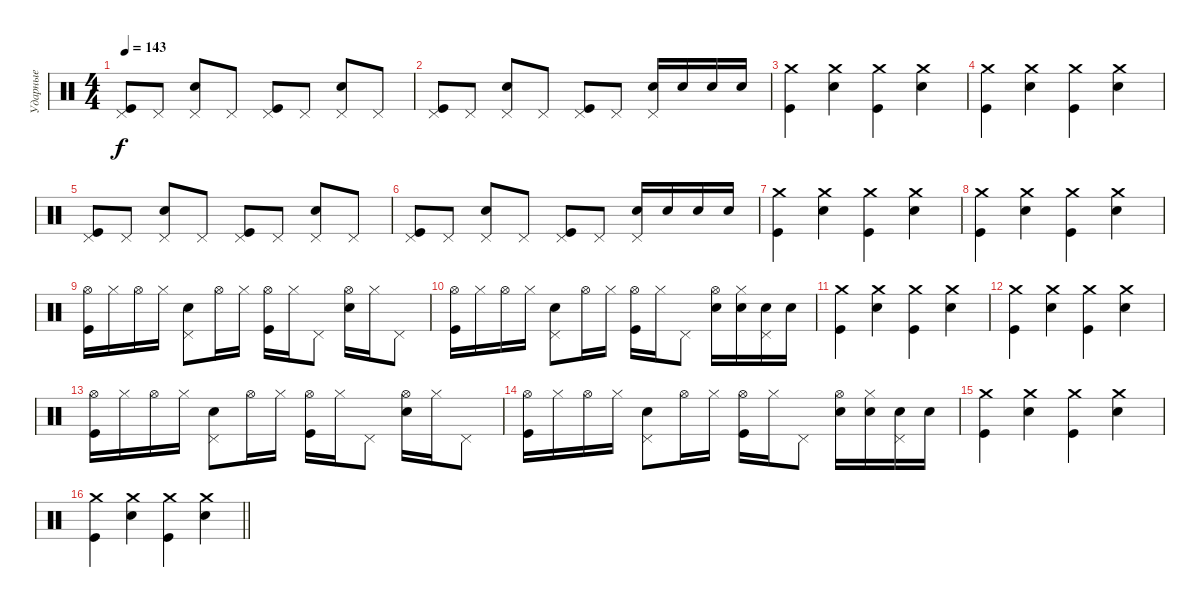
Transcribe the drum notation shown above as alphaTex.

\track ("Ударные" "Ударные") {instrument percussion}
\staff {score}
\articulation defaults
\ts (4 4)
\tempo 143
\clef neutral
\ks c
("Pedal Hi-Hat (hit)" "Kick (hit)").8{dy f} "Pedal Hi-Hat (hit)".8 ("Pedal Hi-Hat (hit)" "Electric Snare (hit)").8 "Pedal Hi-Hat (hit)".8 ("Pedal Hi-Hat (hit)" "Kick (hit)").8 "Pedal Hi-Hat (hit)".8 ("Pedal Hi-Hat (hit)" "Electric Snare (hit)").8 "Pedal Hi-Hat (hit)".8 |
("Pedal Hi-Hat (hit)" "Kick (hit)").8 "Pedal Hi-Hat (hit)".8 ("Pedal Hi-Hat (hit)" "Electric Snare (hit)").8 "Pedal Hi-Hat (hit)".8 ("Pedal Hi-Hat (hit)" "Kick (hit)").8 "Pedal Hi-Hat (hit)".8 ("Pedal Hi-Hat (hit)" "Snare (hit) 2").16 "Snare (hit) 2".16 "Snare (hit) 2".16 "Snare (hit) 2".16 |
("Crash medium (hit)" "Kick (hit)").4 ("Crash medium (hit)" "Snare (hit) 2").4 ("Crash medium (hit)" "Kick (hit)").4 ("Crash medium (hit)" "Snare (hit) 2").4 |
("Crash medium (hit)" "Kick (hit)").4 ("Crash medium (hit)" "Snare (hit) 2").4 ("Crash medium (hit)" "Kick (hit)").4 ("Crash medium (hit)" "Snare (hit) 2").4 |
("Pedal Hi-Hat (hit)" "Kick (hit)").8 "Pedal Hi-Hat (hit)".8 ("Pedal Hi-Hat (hit)" "Electric Snare (hit)").8 "Pedal Hi-Hat (hit)".8 ("Pedal Hi-Hat (hit)" "Kick (hit)").8 "Pedal Hi-Hat (hit)".8 ("Pedal Hi-Hat (hit)" "Electric Snare (hit)").8 "Pedal Hi-Hat (hit)".8 |
("Pedal Hi-Hat (hit)" "Kick (hit)").8 "Pedal Hi-Hat (hit)".8 ("Pedal Hi-Hat (hit)" "Electric Snare (hit)").8 "Pedal Hi-Hat (hit)".8 ("Pedal Hi-Hat (hit)" "Kick (hit)").8 "Pedal Hi-Hat (hit)".8 ("Pedal Hi-Hat (hit)" "Snare (hit) 2").16 "Snare (hit) 2".16 "Snare (hit) 2".16 "Snare (hit) 2".16 |
("Crash medium (hit)" "Kick (hit)").4 ("Crash medium (hit)" "Snare (hit) 2").4 ("Crash medium (hit)" "Kick (hit)").4 ("Crash medium (hit)" "Snare (hit) 2").4 |
("Crash medium (hit)" "Kick (hit)").4 ("Crash medium (hit)" "Snare (hit) 2").4 ("Crash medium (hit)" "Kick (hit)").4 ("Crash medium (hit)" "Snare (hit) 2").4 |
("Hi-Hat (open)" "Kick (hit)").16 "Hi-Hat (closed)".16 "Hi-Hat (open)".16 "Hi-Hat (closed)".16 ("Pedal Hi-Hat (hit)" "Electric Snare (hit)").8 "Hi-Hat (open)".16 "Hi-Hat (closed)".16 ("Hi-Hat (open)" "Kick (hit)").16 "Hi-Hat (closed)".16 "Pedal Hi-Hat (hit)".8 ("Hi-Hat (open)" "Electric Snare (hit)").16 "Hi-Hat (closed)".16 "Pedal Hi-Hat (hit)".8 |
("Hi-Hat (open)" "Kick (hit)").16 "Hi-Hat (closed)".16 "Hi-Hat (open)".16 "Hi-Hat (closed)".16 ("Pedal Hi-Hat (hit)" "Electric Snare (hit)").8 "Hi-Hat (open)".16 "Hi-Hat (closed)".16 ("Hi-Hat (open)" "Kick (hit)").16 "Hi-Hat (closed)".16 "Pedal Hi-Hat (hit)".8 ("Hi-Hat (open)" "Snare (hit) 2").16 ("Hi-Hat (closed)" "Snare (hit) 2").16 ("Pedal Hi-Hat (hit)" "Snare (hit) 2").16 "Snare (hit) 2".16 |
("Crash medium (hit)" "Kick (hit)").4 ("Crash medium (hit)" "Snare (hit) 2").4 ("Crash medium (hit)" "Kick (hit)").4 ("Crash medium (hit)" "Snare (hit) 2").4 |
("Crash medium (hit)" "Kick (hit)").4 ("Crash medium (hit)" "Snare (hit) 2").4 ("Crash medium (hit)" "Kick (hit)").4 ("Crash medium (hit)" "Snare (hit) 2").4 |
("Hi-Hat (open)" "Kick (hit)").16 "Hi-Hat (closed)".16 "Hi-Hat (open)".16 "Hi-Hat (closed)".16 ("Pedal Hi-Hat (hit)" "Electric Snare (hit)").8 "Hi-Hat (open)".16 "Hi-Hat (closed)".16 ("Hi-Hat (open)" "Kick (hit)").16 "Hi-Hat (closed)".16 "Pedal Hi-Hat (hit)".8 ("Hi-Hat (open)" "Electric Snare (hit)").16 "Hi-Hat (closed)".16 "Pedal Hi-Hat (hit)".8 |
("Hi-Hat (open)" "Kick (hit)").16 "Hi-Hat (closed)".16 "Hi-Hat (open)".16 "Hi-Hat (closed)".16 ("Pedal Hi-Hat (hit)" "Electric Snare (hit)").8 "Hi-Hat (open)".16 "Hi-Hat (closed)".16 ("Hi-Hat (open)" "Kick (hit)").16 "Hi-Hat (closed)".16 "Pedal Hi-Hat (hit)".8 ("Hi-Hat (open)" "Snare (hit) 2").16 ("Hi-Hat (closed)" "Snare (hit) 2").16 ("Pedal Hi-Hat (hit)" "Snare (hit) 2").16 "Snare (hit) 2".16 |
("Crash medium (hit)" "Kick (hit)").4 ("Crash medium (hit)" "Snare (hit) 2").4 ("Crash medium (hit)" "Kick (hit)").4 ("Crash medium (hit)" "Snare (hit) 2").4 |
\barLineRight lightlight
("Crash medium (hit)" "Kick (hit)").4 ("Crash medium (hit)" "Snare (hit) 2").4 ("Crash medium (hit)" "Kick (hit)").4 ("Crash medium (hit)" "Snare (hit) 2").4
